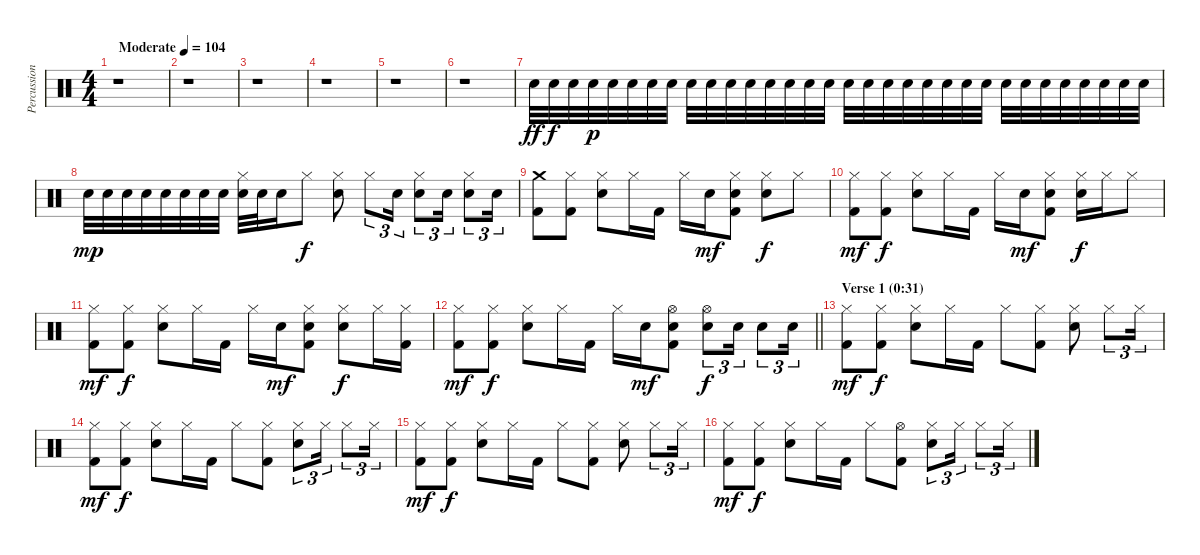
\track ("Percussion" "Percussion") {instrument percussion}
\staff {score}
\articulation defaults
\ts (4 4)
\tempo (104 "Moderate")
\clef neutral
\ks c
r.1{dy ff} |
r.1 |
r.1 |
r.1 |
r.1 |
r.1 |
"Electric Snare (hit)".32 "Electric Snare (hit)".32{dy f} "Electric Snare (hit)".32 "Electric Snare (hit)".32{dy p} "Electric Snare (hit)".32 "Electric Snare (hit)".32 "Electric Snare (hit)".32 "Electric Snare (hit)".32 "Electric Snare (hit)".32 "Electric Snare (hit)".32 "Electric Snare (hit)".32 "Electric Snare (hit)".32 "Electric Snare (hit)".32 "Electric Snare (hit)".32 "Electric Snare (hit)".32 "Electric Snare (hit)".32 "Electric Snare (hit)".32 "Electric Snare (hit)".32 "Electric Snare (hit)".32 "Electric Snare (hit)".32 "Electric Snare (hit)".32 "Electric Snare (hit)".32 "Electric Snare (hit)".32 "Electric Snare (hit)".32 "Electric Snare (hit)".32 "Electric Snare (hit)".32 "Electric Snare (hit)".32 "Electric Snare (hit)".32 "Electric Snare (hit)".32 "Electric Snare (hit)".32 "Electric Snare (hit)".32 "Electric Snare (hit)".32 |
"Electric Snare (hit)".32{dy mp} "Electric Snare (hit)".32 "Electric Snare (hit)".32 "Electric Snare (hit)".32 "Electric Snare (hit)".32 "Electric Snare (hit)".32 "Electric Snare (hit)".32 "Electric Snare (hit)".32 ("Hi-Hat (closed)" "Electric Snare (hit)").32 "Electric Snare (hit)".32 "Electric Snare (hit)".16 "Hi-Hat (closed)".8{dy f} ("Hi-Hat (closed)" "Electric Snare (hit)").8 "Hi-Hat (closed)".8{tu (3 2)} "Electric Snare (hit)".16{tu (3 2)} ("Hi-Hat (closed)" "Electric Snare (hit)").8{tu (3 2)} "Snare (hit) 2".16{tu (3 2)} ("Hi-Hat (closed)" "Snare (hit) 2").8{tu (3 2)} "Electric Snare (hit)".16{tu (3 2)} |
("Crash medium (hit)" "Kick (hit) 2").8 ("Hi-Hat (closed)" "Kick (hit) 2").8 ("Hi-Hat (closed)" "Electric Snare (hit)").8 "Hi-Hat (closed)".16 "Kick (hit) 2".16 "Hi-Hat (closed)".16 "Snare (hit) 2".16{dy mf} ("Hi-Hat (closed)" "Snare (hit) 2" "Kick (hit) 2").8 ("Hi-Hat (closed)" "Electric Snare (hit)").8{dy f} "Hi-Hat (closed)".8 |
("Hi-Hat (closed)" "Kick (hit) 2").8{dy mf} ("Hi-Hat (closed)" "Kick (hit) 2").8{dy f} ("Hi-Hat (closed)" "Electric Snare (hit)").8 "Hi-Hat (closed)".16 "Kick (hit) 2".16 "Hi-Hat (closed)".16 "Snare (hit) 2".16{dy mf} ("Hi-Hat (closed)" "Snare (hit) 2" "Kick (hit) 2").8 ("Hi-Hat (closed)" "Electric Snare (hit)").16{dy f} "Hi-Hat (closed)".16 "Hi-Hat (closed)".8 |
("Hi-Hat (closed)" "Kick (hit) 2").8{dy mf} ("Hi-Hat (closed)" "Kick (hit) 2").8{dy f} ("Hi-Hat (closed)" "Electric Snare (hit)").8 "Hi-Hat (closed)".16 "Kick (hit) 2".16 "Hi-Hat (closed)".16 "Snare (hit) 2".16{dy mf} ("Hi-Hat (closed)" "Snare (hit) 2" "Kick (hit) 2").8 ("Hi-Hat (closed)" "Electric Snare (hit)").8{dy f} "Hi-Hat (closed)".16 ("Hi-Hat (closed)" "Kick (hit) 2").16 |
\barLineRight lightlight
("Hi-Hat (closed)" "Kick (hit) 2").8{dy mf} ("Hi-Hat (closed)" "Kick (hit) 2").8{dy f} ("Hi-Hat (closed)" "Electric Snare (hit)").8 "Hi-Hat (closed)".16 "Kick (hit) 2".16 "Hi-Hat (closed)".16 "Electric Snare (hit)".16{dy mf} ("Hi-Hat (open)" "Electric Snare (hit)" "Kick (hit) 2").8 ("Hi-Hat (open)" "Electric Snare (hit)").8{tu (3 2) dy f} "Electric Snare (hit)".16{tu (3 2)} "Electric Snare (hit)".8{tu (3 2)} "Electric Snare (hit)".16{tu (3 2)} |
\section ("" "Verse 1 (0:31)")
("Hi-Hat (closed)" "Kick (hit) 2").8{dy mf} ("Hi-Hat (closed)" "Kick (hit) 2").8{dy f} ("Hi-Hat (closed)" "Electric Snare (hit)").8 "Hi-Hat (closed)".16 "Kick (hit) 2".16 "Hi-Hat (closed)".8 ("Hi-Hat (closed)" "Kick (hit) 2").8 ("Hi-Hat (closed)" "Electric Snare (hit)").8 "Hi-Hat (closed)".8{tu (3 2)} "Hi-Hat (closed)".16{tu (3 2)} |
("Hi-Hat (closed)" "Kick (hit) 2").8{dy mf} ("Hi-Hat (closed)" "Kick (hit) 2").8{dy f} ("Hi-Hat (closed)" "Electric Snare (hit)").8 "Hi-Hat (closed)".16 "Kick (hit) 2".16 "Hi-Hat (closed)".8 ("Hi-Hat (closed)" "Kick (hit) 2").8 ("Hi-Hat (closed)" "Electric Snare (hit)").8{tu (3 2)} "Hi-Hat (closed)".16{tu (3 2)} "Hi-Hat (closed)".8{tu (3 2)} "Hi-Hat (closed)".16{tu (3 2)} |
("Hi-Hat (closed)" "Kick (hit) 2").8{dy mf} ("Hi-Hat (closed)" "Kick (hit) 2").8{dy f} ("Hi-Hat (closed)" "Electric Snare (hit)").8 "Hi-Hat (closed)".16 "Kick (hit) 2".16 "Hi-Hat (closed)".8 ("Hi-Hat (closed)" "Kick (hit) 2").8 ("Hi-Hat (closed)" "Electric Snare (hit)").8 "Hi-Hat (closed)".8{tu (3 2)} "Hi-Hat (closed)".16{tu (3 2)} |
("Hi-Hat (closed)" "Kick (hit) 2").8{dy mf} ("Hi-Hat (closed)" "Kick (hit) 2").8{dy f} ("Hi-Hat (closed)" "Electric Snare (hit)").8 "Hi-Hat (closed)".16 "Kick (hit) 2".16 "Hi-Hat (closed)".8 ("Hi-Hat (open)" "Kick (hit) 2").8 ("Hi-Hat (closed)" "Electric Snare (hit)").8{tu (3 2)} "Hi-Hat (closed)".16{tu (3 2)} "Hi-Hat (closed)".8{tu (3 2)} "Hi-Hat (closed)".16{tu (3 2)}
